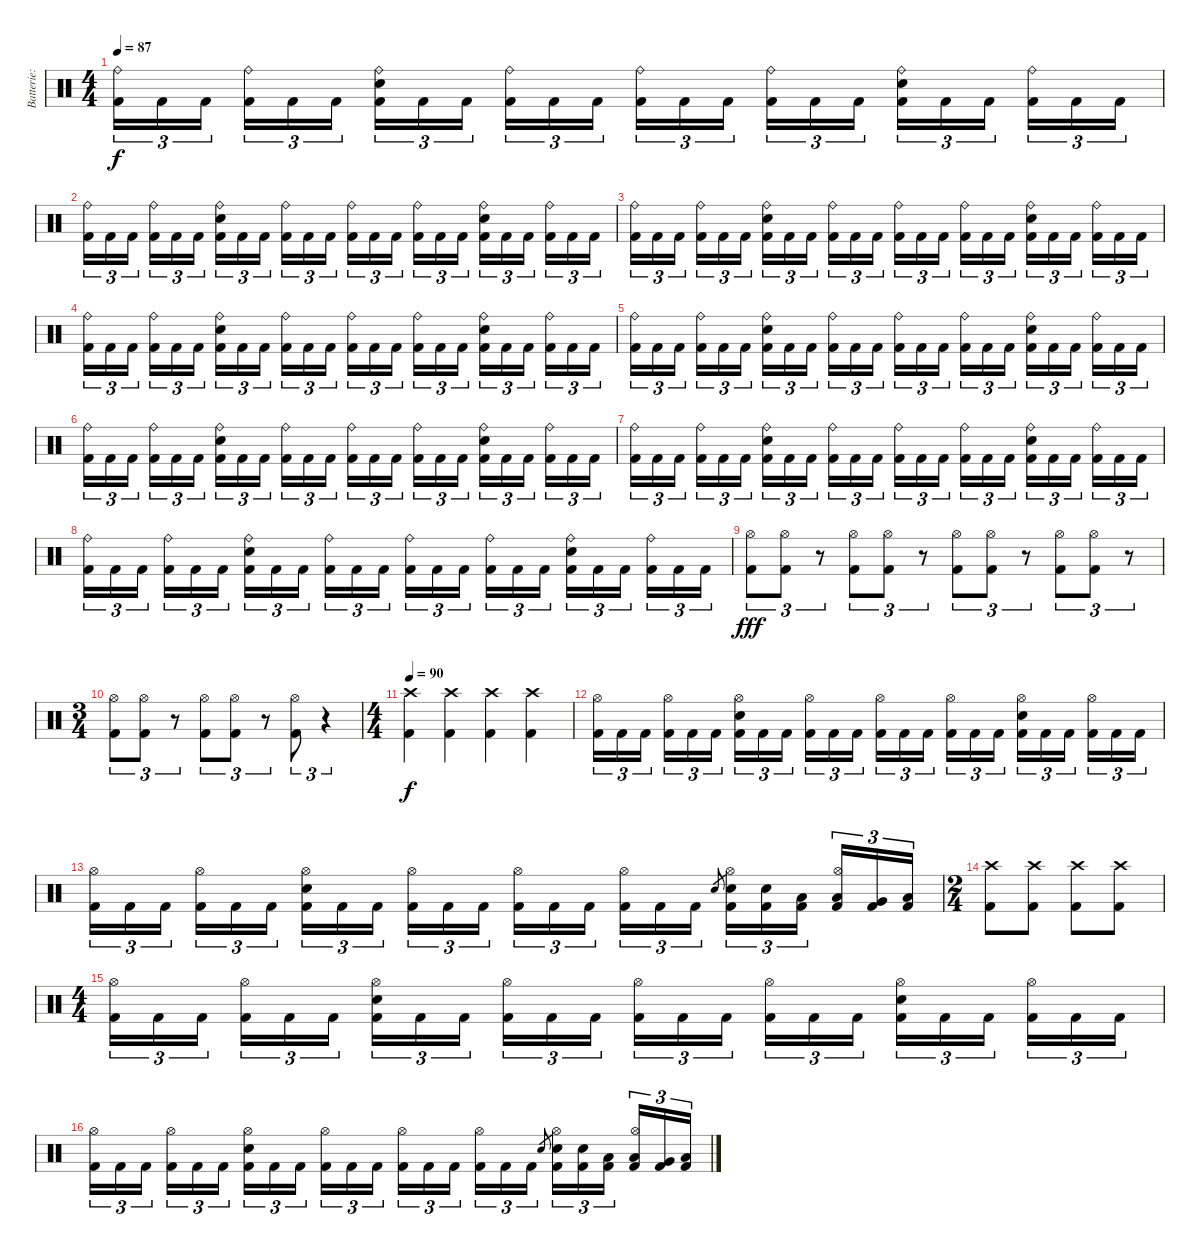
\track ("Batterie: Paul" "Batterie: ") {instrument percussion}
\staff {score}
\articulation defaults
\ts (4 4)
\tempo 87
\clef neutral
\ks c
("Ride (bell)" "Kick (hit) 2").16{tu (3 2) dy f} "Kick (hit) 2".16{tu (3 2)} "Kick (hit) 2".16{tu (3 2)} ("Ride (bell)" "Kick (hit) 2").16{tu (3 2)} "Kick (hit) 2".16{tu (3 2)} "Kick (hit) 2".16{tu (3 2)} ("Ride (bell)" "Snare (hit) 2" "Kick (hit) 2").16{tu (3 2)} "Kick (hit) 2".16{tu (3 2)} "Kick (hit) 2".16{tu (3 2)} ("Ride (bell)" "Kick (hit) 2").16{tu (3 2)} "Kick (hit) 2".16{tu (3 2)} "Kick (hit) 2".16{tu (3 2)} ("Ride (bell)" "Kick (hit) 2").16{tu (3 2)} "Kick (hit) 2".16{tu (3 2)} "Kick (hit) 2".16{tu (3 2)} ("Ride (bell)" "Kick (hit) 2").16{tu (3 2)} "Kick (hit) 2".16{tu (3 2)} "Kick (hit) 2".16{tu (3 2)} ("Ride (bell)" "Snare (hit) 2" "Kick (hit) 2").16{tu (3 2)} "Kick (hit) 2".16{tu (3 2)} "Kick (hit) 2".16{tu (3 2)} ("Ride (bell)" "Kick (hit) 2").16{tu (3 2)} "Kick (hit) 2".16{tu (3 2)} "Kick (hit) 2".16{tu (3 2)} |
("Ride (bell)" "Kick (hit) 2").16{tu (3 2)} "Kick (hit) 2".16{tu (3 2)} "Kick (hit) 2".16{tu (3 2)} ("Ride (bell)" "Kick (hit) 2").16{tu (3 2)} "Kick (hit) 2".16{tu (3 2)} "Kick (hit) 2".16{tu (3 2)} ("Ride (bell)" "Snare (hit) 2" "Kick (hit) 2").16{tu (3 2)} "Kick (hit) 2".16{tu (3 2)} "Kick (hit) 2".16{tu (3 2)} ("Ride (bell)" "Kick (hit) 2").16{tu (3 2)} "Kick (hit) 2".16{tu (3 2)} "Kick (hit) 2".16{tu (3 2)} ("Ride (bell)" "Kick (hit) 2").16{tu (3 2)} "Kick (hit) 2".16{tu (3 2)} "Kick (hit) 2".16{tu (3 2)} ("Ride (bell)" "Kick (hit) 2").16{tu (3 2)} "Kick (hit) 2".16{tu (3 2)} "Kick (hit) 2".16{tu (3 2)} ("Ride (bell)" "Snare (hit) 2" "Kick (hit) 2").16{tu (3 2)} "Kick (hit) 2".16{tu (3 2)} "Kick (hit) 2".16{tu (3 2)} ("Ride (bell)" "Kick (hit) 2").16{tu (3 2)} "Kick (hit) 2".16{tu (3 2)} "Kick (hit) 2".16{tu (3 2)} |
("Ride (bell)" "Kick (hit) 2").16{tu (3 2)} "Kick (hit) 2".16{tu (3 2)} "Kick (hit) 2".16{tu (3 2)} ("Ride (bell)" "Kick (hit) 2").16{tu (3 2)} "Kick (hit) 2".16{tu (3 2)} "Kick (hit) 2".16{tu (3 2)} ("Ride (bell)" "Snare (hit) 2" "Kick (hit) 2").16{tu (3 2)} "Kick (hit) 2".16{tu (3 2)} "Kick (hit) 2".16{tu (3 2)} ("Ride (bell)" "Kick (hit) 2").16{tu (3 2)} "Kick (hit) 2".16{tu (3 2)} "Kick (hit) 2".16{tu (3 2)} ("Ride (bell)" "Kick (hit) 2").16{tu (3 2)} "Kick (hit) 2".16{tu (3 2)} "Kick (hit) 2".16{tu (3 2)} ("Ride (bell)" "Kick (hit) 2").16{tu (3 2)} "Kick (hit) 2".16{tu (3 2)} "Kick (hit) 2".16{tu (3 2)} ("Ride (bell)" "Snare (hit) 2" "Kick (hit) 2").16{tu (3 2)} "Kick (hit) 2".16{tu (3 2)} "Kick (hit) 2".16{tu (3 2)} ("Ride (bell)" "Kick (hit) 2").16{tu (3 2)} "Kick (hit) 2".16{tu (3 2)} "Kick (hit) 2".16{tu (3 2)} |
("Ride (bell)" "Kick (hit) 2").16{tu (3 2)} "Kick (hit) 2".16{tu (3 2)} "Kick (hit) 2".16{tu (3 2)} ("Ride (bell)" "Kick (hit) 2").16{tu (3 2)} "Kick (hit) 2".16{tu (3 2)} "Kick (hit) 2".16{tu (3 2)} ("Ride (bell)" "Snare (hit) 2" "Kick (hit) 2").16{tu (3 2)} "Kick (hit) 2".16{tu (3 2)} "Kick (hit) 2".16{tu (3 2)} ("Ride (bell)" "Kick (hit) 2").16{tu (3 2)} "Kick (hit) 2".16{tu (3 2)} "Kick (hit) 2".16{tu (3 2)} ("Ride (bell)" "Kick (hit) 2").16{tu (3 2)} "Kick (hit) 2".16{tu (3 2)} "Kick (hit) 2".16{tu (3 2)} ("Ride (bell)" "Kick (hit) 2").16{tu (3 2)} "Kick (hit) 2".16{tu (3 2)} "Kick (hit) 2".16{tu (3 2)} ("Ride (bell)" "Snare (hit) 2" "Kick (hit) 2").16{tu (3 2)} "Kick (hit) 2".16{tu (3 2)} "Kick (hit) 2".16{tu (3 2)} ("Ride (bell)" "Kick (hit) 2").16{tu (3 2)} "Kick (hit) 2".16{tu (3 2)} "Kick (hit) 2".16{tu (3 2)} |
("Ride (bell)" "Kick (hit) 2").16{tu (3 2)} "Kick (hit) 2".16{tu (3 2)} "Kick (hit) 2".16{tu (3 2)} ("Ride (bell)" "Kick (hit) 2").16{tu (3 2)} "Kick (hit) 2".16{tu (3 2)} "Kick (hit) 2".16{tu (3 2)} ("Ride (bell)" "Snare (hit) 2" "Kick (hit) 2").16{tu (3 2)} "Kick (hit) 2".16{tu (3 2)} "Kick (hit) 2".16{tu (3 2)} ("Ride (bell)" "Kick (hit) 2").16{tu (3 2)} "Kick (hit) 2".16{tu (3 2)} "Kick (hit) 2".16{tu (3 2)} ("Ride (bell)" "Kick (hit) 2").16{tu (3 2)} "Kick (hit) 2".16{tu (3 2)} "Kick (hit) 2".16{tu (3 2)} ("Ride (bell)" "Kick (hit) 2").16{tu (3 2)} "Kick (hit) 2".16{tu (3 2)} "Kick (hit) 2".16{tu (3 2)} ("Ride (bell)" "Snare (hit) 2" "Kick (hit) 2").16{tu (3 2)} "Kick (hit) 2".16{tu (3 2)} "Kick (hit) 2".16{tu (3 2)} ("Ride (bell)" "Kick (hit) 2").16{tu (3 2)} "Kick (hit) 2".16{tu (3 2)} "Kick (hit) 2".16{tu (3 2)} |
("Ride (bell)" "Kick (hit) 2").16{tu (3 2)} "Kick (hit) 2".16{tu (3 2)} "Kick (hit) 2".16{tu (3 2)} ("Ride (bell)" "Kick (hit) 2").16{tu (3 2)} "Kick (hit) 2".16{tu (3 2)} "Kick (hit) 2".16{tu (3 2)} ("Ride (bell)" "Snare (hit) 2" "Kick (hit) 2").16{tu (3 2)} "Kick (hit) 2".16{tu (3 2)} "Kick (hit) 2".16{tu (3 2)} ("Ride (bell)" "Kick (hit) 2").16{tu (3 2)} "Kick (hit) 2".16{tu (3 2)} "Kick (hit) 2".16{tu (3 2)} ("Ride (bell)" "Kick (hit) 2").16{tu (3 2)} "Kick (hit) 2".16{tu (3 2)} "Kick (hit) 2".16{tu (3 2)} ("Ride (bell)" "Kick (hit) 2").16{tu (3 2)} "Kick (hit) 2".16{tu (3 2)} "Kick (hit) 2".16{tu (3 2)} ("Ride (bell)" "Snare (hit) 2" "Kick (hit) 2").16{tu (3 2)} "Kick (hit) 2".16{tu (3 2)} "Kick (hit) 2".16{tu (3 2)} ("Ride (bell)" "Kick (hit) 2").16{tu (3 2)} "Kick (hit) 2".16{tu (3 2)} "Kick (hit) 2".16{tu (3 2)} |
("Ride (bell)" "Kick (hit) 2").16{tu (3 2)} "Kick (hit) 2".16{tu (3 2)} "Kick (hit) 2".16{tu (3 2)} ("Ride (bell)" "Kick (hit) 2").16{tu (3 2)} "Kick (hit) 2".16{tu (3 2)} "Kick (hit) 2".16{tu (3 2)} ("Ride (bell)" "Snare (hit) 2" "Kick (hit) 2").16{tu (3 2)} "Kick (hit) 2".16{tu (3 2)} "Kick (hit) 2".16{tu (3 2)} ("Ride (bell)" "Kick (hit) 2").16{tu (3 2)} "Kick (hit) 2".16{tu (3 2)} "Kick (hit) 2".16{tu (3 2)} ("Ride (bell)" "Kick (hit) 2").16{tu (3 2)} "Kick (hit) 2".16{tu (3 2)} "Kick (hit) 2".16{tu (3 2)} ("Ride (bell)" "Kick (hit) 2").16{tu (3 2)} "Kick (hit) 2".16{tu (3 2)} "Kick (hit) 2".16{tu (3 2)} ("Ride (bell)" "Snare (hit) 2" "Kick (hit) 2").16{tu (3 2)} "Kick (hit) 2".16{tu (3 2)} "Kick (hit) 2".16{tu (3 2)} ("Ride (bell)" "Kick (hit) 2").16{tu (3 2)} "Kick (hit) 2".16{tu (3 2)} "Kick (hit) 2".16{tu (3 2)} |
("Ride (bell)" "Kick (hit) 2").16{tu (3 2)} "Kick (hit) 2".16{tu (3 2)} "Kick (hit) 2".16{tu (3 2)} ("Ride (bell)" "Kick (hit) 2").16{tu (3 2)} "Kick (hit) 2".16{tu (3 2)} "Kick (hit) 2".16{tu (3 2)} ("Ride (bell)" "Snare (hit) 2" "Kick (hit) 2").16{tu (3 2)} "Kick (hit) 2".16{tu (3 2)} "Kick (hit) 2".16{tu (3 2)} ("Ride (bell)" "Kick (hit) 2").16{tu (3 2)} "Kick (hit) 2".16{tu (3 2)} "Kick (hit) 2".16{tu (3 2)} ("Ride (bell)" "Kick (hit) 2").16{tu (3 2)} "Kick (hit) 2".16{tu (3 2)} "Kick (hit) 2".16{tu (3 2)} ("Ride (bell)" "Kick (hit) 2").16{tu (3 2)} "Kick (hit) 2".16{tu (3 2)} "Kick (hit) 2".16{tu (3 2)} ("Ride (bell)" "Snare (hit) 2" "Kick (hit) 2").16{tu (3 2)} "Kick (hit) 2".16{tu (3 2)} "Kick (hit) 2".16{tu (3 2)} ("Ride (bell)" "Kick (hit) 2").16{tu (3 2)} "Kick (hit) 2".16{tu (3 2)} "Kick (hit) 2".16{tu (3 2)} |
("Hi-Hat (open)" "Kick (hit) 2").8{tu (3 2) dy fff} ("Hi-Hat (open)" "Kick (hit) 2").8{tu (3 2)} r.8{tu (3 2)} ("Hi-Hat (open)" "Kick (hit) 2").8{tu (3 2)} ("Hi-Hat (open)" "Kick (hit) 2").8{tu (3 2)} r.8{tu (3 2)} ("Hi-Hat (open)" "Kick (hit) 2").8{tu (3 2)} ("Hi-Hat (open)" "Kick (hit) 2").8{tu (3 2)} r.8{tu (3 2)} ("Hi-Hat (open)" "Kick (hit) 2").8{tu (3 2)} ("Hi-Hat (open)" "Kick (hit) 2").8{tu (3 2)} r.8{tu (3 2)} |
\ts (3 4)
("Hi-Hat (open)" "Kick (hit) 2").8{tu (3 2)} ("Hi-Hat (open)" "Kick (hit) 2").8{tu (3 2)} r.8{tu (3 2)} ("Hi-Hat (open)" "Kick (hit) 2").8{tu (3 2)} ("Hi-Hat (open)" "Kick (hit) 2").8{tu (3 2)} r.8{tu (3 2)} ("Hi-Hat (open)" "Kick (hit) 2").8{tu (3 2)} r.4{tu (3 2)} |
\ts (4 4)
\tempo 90
("Crash high (hit)" "Kick (hit) 2").4{dy f} ("Crash high (hit)" "Kick (hit) 2").4 ("Crash high (hit)" "Kick (hit) 2").4 ("Crash high (hit)" "Kick (hit) 2").4 |
("Hi-Hat (open)" "Kick (hit) 2").16{tu (3 2)} "Kick (hit) 2".16{tu (3 2)} "Kick (hit) 2".16{tu (3 2)} ("Hi-Hat (open)" "Kick (hit) 2").16{tu (3 2)} "Kick (hit) 2".16{tu (3 2)} "Kick (hit) 2".16{tu (3 2)} ("Hi-Hat (open)" "Snare (hit) 2" "Kick (hit) 2").16{tu (3 2)} "Kick (hit) 2".16{tu (3 2)} "Kick (hit) 2".16{tu (3 2)} ("Hi-Hat (open)" "Kick (hit) 2").16{tu (3 2)} "Kick (hit) 2".16{tu (3 2)} "Kick (hit) 2".16{tu (3 2)} ("Hi-Hat (open)" "Kick (hit) 2").16{tu (3 2)} "Kick (hit) 2".16{tu (3 2)} "Kick (hit) 2".16{tu (3 2)} ("Hi-Hat (open)" "Kick (hit) 2").16{tu (3 2)} "Kick (hit) 2".16{tu (3 2)} "Kick (hit) 2".16{tu (3 2)} ("Hi-Hat (open)" "Snare (hit) 2" "Kick (hit) 2").16{tu (3 2)} "Kick (hit) 2".16{tu (3 2)} "Kick (hit) 2".16{tu (3 2)} ("Hi-Hat (open)" "Kick (hit) 2").16{tu (3 2)} "Kick (hit) 2".16{tu (3 2)} "Kick (hit) 2".16{tu (3 2)} |
("Hi-Hat (open)" "Kick (hit) 2").16{tu (3 2)} "Kick (hit) 2".16{tu (3 2)} "Kick (hit) 2".16{tu (3 2)} ("Hi-Hat (open)" "Kick (hit) 2").16{tu (3 2)} "Kick (hit) 2".16{tu (3 2)} "Kick (hit) 2".16{tu (3 2)} ("Hi-Hat (open)" "Snare (hit) 2" "Kick (hit) 2").16{tu (3 2)} "Kick (hit) 2".16{tu (3 2)} "Kick (hit) 2".16{tu (3 2)} ("Hi-Hat (open)" "Kick (hit) 2").16{tu (3 2)} "Kick (hit) 2".16{tu (3 2)} "Kick (hit) 2".16{tu (3 2)} ("Hi-Hat (open)" "Kick (hit) 2").16{tu (3 2)} "Kick (hit) 2".16{tu (3 2)} "Kick (hit) 2".16{tu (3 2)} ("Hi-Hat (open)" "Kick (hit) 2").16{tu (3 2)} "Kick (hit) 2".16{tu (3 2)} "Kick (hit) 2".16{tu (3 2)} "Snare (hit) 2".8{gr} ("Hi-Hat (open)" "Snare (hit) 2" "Kick (hit) 2").16{tu (3 2)} ("Snare (hit) 2" "Kick (hit) 2").16{tu (3 2)} ("Low Tom (hit)" "Kick (hit) 2").16{tu (3 2)} ("Hi-Hat (open)" "Low Tom (hit)" "Kick (hit) 2").16{tu (3 2)} ("Very Low Tom (hit)" "Kick (hit) 2").16{tu (3 2)} ("Low Floor Tom (hit)" "Kick (hit) 2").16{tu (3 2)} |
\ts (2 4)
("Crash high (hit)" "Kick (hit) 2").8 ("Crash high (hit)" "Kick (hit) 2").8 ("Crash high (hit)" "Kick (hit) 2").8 ("Crash high (hit)" "Kick (hit) 2").8 |
\ts (4 4)
("Hi-Hat (open)" "Kick (hit) 2").16{tu (3 2)} "Kick (hit) 2".16{tu (3 2)} "Kick (hit) 2".16{tu (3 2)} ("Hi-Hat (open)" "Kick (hit) 2").16{tu (3 2)} "Kick (hit) 2".16{tu (3 2)} "Kick (hit) 2".16{tu (3 2)} ("Hi-Hat (open)" "Snare (hit) 2" "Kick (hit) 2").16{tu (3 2)} "Kick (hit) 2".16{tu (3 2)} "Kick (hit) 2".16{tu (3 2)} ("Hi-Hat (open)" "Kick (hit) 2").16{tu (3 2)} "Kick (hit) 2".16{tu (3 2)} "Kick (hit) 2".16{tu (3 2)} ("Hi-Hat (open)" "Kick (hit) 2").16{tu (3 2)} "Kick (hit) 2".16{tu (3 2)} "Kick (hit) 2".16{tu (3 2)} ("Hi-Hat (open)" "Kick (hit) 2").16{tu (3 2)} "Kick (hit) 2".16{tu (3 2)} "Kick (hit) 2".16{tu (3 2)} ("Hi-Hat (open)" "Snare (hit) 2" "Kick (hit) 2").16{tu (3 2)} "Kick (hit) 2".16{tu (3 2)} "Kick (hit) 2".16{tu (3 2)} ("Hi-Hat (open)" "Kick (hit) 2").16{tu (3 2)} "Kick (hit) 2".16{tu (3 2)} "Kick (hit) 2".16{tu (3 2)} |
("Hi-Hat (open)" "Kick (hit) 2").16{tu (3 2)} "Kick (hit) 2".16{tu (3 2)} "Kick (hit) 2".16{tu (3 2)} ("Hi-Hat (open)" "Kick (hit) 2").16{tu (3 2)} "Kick (hit) 2".16{tu (3 2)} "Kick (hit) 2".16{tu (3 2)} ("Hi-Hat (open)" "Snare (hit) 2" "Kick (hit) 2").16{tu (3 2)} "Kick (hit) 2".16{tu (3 2)} "Kick (hit) 2".16{tu (3 2)} ("Hi-Hat (open)" "Kick (hit) 2").16{tu (3 2)} "Kick (hit) 2".16{tu (3 2)} "Kick (hit) 2".16{tu (3 2)} ("Hi-Hat (open)" "Kick (hit) 2").16{tu (3 2)} "Kick (hit) 2".16{tu (3 2)} "Kick (hit) 2".16{tu (3 2)} ("Hi-Hat (open)" "Kick (hit) 2").16{tu (3 2)} "Kick (hit) 2".16{tu (3 2)} "Kick (hit) 2".16{tu (3 2)} "Snare (hit) 2".8{gr} ("Hi-Hat (open)" "Snare (hit) 2" "Kick (hit) 2").16{tu (3 2)} ("Snare (hit) 2" "Kick (hit) 2").16{tu (3 2)} ("Low Tom (hit)" "Kick (hit) 2").16{tu (3 2)} ("Hi-Hat (open)" "Low Tom (hit)" "Kick (hit) 2").16{tu (3 2)} ("Very Low Tom (hit)" "Kick (hit) 2").16{tu (3 2)} ("Low Floor Tom (hit)" "Kick (hit) 2").16{tu (3 2)}
